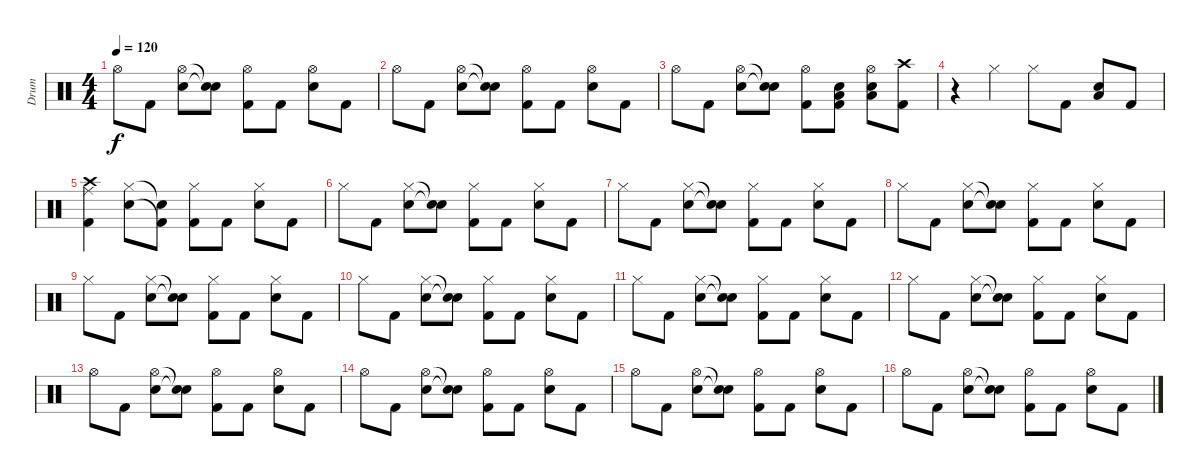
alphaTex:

\track ("Drum" "Drum") {instrument percussion}
\staff {score}
\articulation defaults
\ts (4 4)
\tempo 120
\clef neutral
\ks c "Hi-Hat (open)".8{dy f} "Kick (hit) 2".8
("Hi-Hat (open)" "Electric Snare (hit)").8 ("Snare (hit)"{t} "Snare (hit)"{t}).8 ("Hi-Hat (open)" "Kick (hit) 2").8 "Kick (hit) 2".8 ("Hi-Hat (open)" "Electric Snare (hit)").8 "Kick (hit) 2".8 |
"Hi-Hat (open)".8 "Kick (hit) 2".8 ("Hi-Hat (open)" "Electric Snare (hit)").8 ("Snare (hit)"{t} "Snare (hit)"{t}).8 ("Hi-Hat (open)" "Kick (hit) 2").8 "Kick (hit) 2".8 ("Hi-Hat (open)" "Electric Snare (hit)").8 "Kick (hit) 2".8 |
"Hi-Hat (open)".8 "Kick (hit) 2".8 ("Hi-Hat (open)" "Electric Snare (hit)").8 ("Snare (hit)"{t} "Electric Snare (hit)"{t}).8 ("Hi-Hat (open)" "Kick (hit) 2").8 ("Electric Snare (hit)" "Low Floor Tom (hit)" "Kick (hit) 2").8 ("Hi-Hat (open)" "Electric Snare (hit)" "Low Floor Tom (hit)").8 ("Crash high (hit)" "Kick (hit) 2").8 |
r.4 "Hi-Hat (closed)".4 "Hi-Hat (closed)".8 "Kick (hit) 2".8 ("Electric Snare (hit)" "Low Floor Tom (hit)").8 "Kick (hit) 2".8 |
("Crash high (hit)" "Ride (middle)" "Kick (hit) 2").4 ("Hi-Hat (closed)" "Electric Snare (hit)").8 ("Snare (hit)"{t} "Kick (hit) 2"{t}).8 ("Hi-Hat (closed)" "Kick (hit) 2").8 "Kick (hit) 2".8 ("Hi-Hat (closed)" "Electric Snare (hit)").8 "Kick (hit) 2".8 |
"Hi-Hat (closed)".8 "Kick (hit) 2".8 ("Hi-Hat (closed)" "Electric Snare (hit)").8 ("Snare (hit)"{t} "Snare (hit)"{t}).8 ("Hi-Hat (closed)" "Kick (hit) 2").8 "Kick (hit) 2".8 ("Hi-Hat (closed)" "Electric Snare (hit)").8 "Kick (hit) 2".8 |
"Hi-Hat (closed)".8 "Kick (hit) 2".8 ("Hi-Hat (closed)" "Electric Snare (hit)").8 ("Snare (hit)"{t} "Snare (hit)"{t}).8 ("Hi-Hat (closed)" "Kick (hit) 2").8 "Kick (hit) 2".8 ("Hi-Hat (closed)" "Electric Snare (hit)").8 "Kick (hit) 2".8 |
"Hi-Hat (closed)".8 "Kick (hit) 2".8 ("Hi-Hat (closed)" "Electric Snare (hit)").8 ("Snare (hit)"{t} "Snare (hit)"{t}).8 ("Hi-Hat (closed)" "Kick (hit) 2").8 "Kick (hit) 2".8 ("Hi-Hat (closed)" "Electric Snare (hit)").8 "Kick (hit) 2".8 |
"Hi-Hat (closed)".8 "Kick (hit) 2".8 ("Hi-Hat (closed)" "Electric Snare (hit)").8 ("Snare (hit)"{t} "Snare (hit)"{t}).8 ("Hi-Hat (closed)" "Kick (hit) 2").8 "Kick (hit) 2".8 ("Hi-Hat (closed)" "Electric Snare (hit)").8 "Kick (hit) 2".8 |
"Hi-Hat (closed)".8 "Kick (hit) 2".8 ("Hi-Hat (closed)" "Electric Snare (hit)").8 ("Snare (hit)"{t} "Snare (hit)"{t}).8 ("Hi-Hat (closed)" "Kick (hit) 2").8 "Kick (hit) 2".8 ("Hi-Hat (closed)" "Electric Snare (hit)").8 "Kick (hit) 2".8 |
"Hi-Hat (closed)".8 "Kick (hit) 2".8 ("Hi-Hat (closed)" "Electric Snare (hit)").8 ("Snare (hit)"{t} "Snare (hit)"{t}).8 ("Hi-Hat (closed)" "Kick (hit) 2").8 "Kick (hit) 2".8 ("Hi-Hat (closed)" "Electric Snare (hit)").8 "Kick (hit) 2".8 |
"Hi-Hat (closed)".8 "Kick (hit) 2".8 ("Hi-Hat (closed)" "Electric Snare (hit)").8 ("Snare (hit)"{t} "Snare (hit)"{t}).8 ("Hi-Hat (closed)" "Kick (hit) 2").8 "Kick (hit) 2".8 ("Hi-Hat (closed)" "Electric Snare (hit)").8 "Kick (hit) 2".8 |
"Hi-Hat (open)".8 "Kick (hit) 2".8 ("Hi-Hat (open)" "Electric Snare (hit)").8 ("Snare (hit)"{t} "Snare (hit)"{t}).8 ("Hi-Hat (open)" "Kick (hit) 2").8 "Kick (hit) 2".8 ("Hi-Hat (open)" "Electric Snare (hit)").8 "Kick (hit) 2".8 |
"Hi-Hat (open)".8 "Kick (hit) 2".8 ("Hi-Hat (open)" "Electric Snare (hit)").8 ("Snare (hit)"{t} "Snare (hit)"{t}).8 ("Hi-Hat (open)" "Kick (hit) 2").8 "Kick (hit) 2".8 ("Hi-Hat (open)" "Electric Snare (hit)").8 "Kick (hit) 2".8 |
"Hi-Hat (open)".8 "Kick (hit) 2".8 ("Hi-Hat (open)" "Electric Snare (hit)").8 ("Snare (hit)"{t} "Snare (hit)"{t}).8 ("Hi-Hat (open)" "Kick (hit) 2").8 "Kick (hit) 2".8 ("Hi-Hat (open)" "Electric Snare (hit)").8 "Kick (hit) 2".8 |
"Hi-Hat (open)".8 "Kick (hit) 2".8 ("Hi-Hat (open)" "Electric Snare (hit)").8 ("Snare (hit)"{t} "Snare (hit)"{t}).8 ("Hi-Hat (open)" "Kick (hit) 2").8 "Kick (hit) 2".8 ("Hi-Hat (open)" "Electric Snare (hit)").8 "Kick (hit) 2".8
